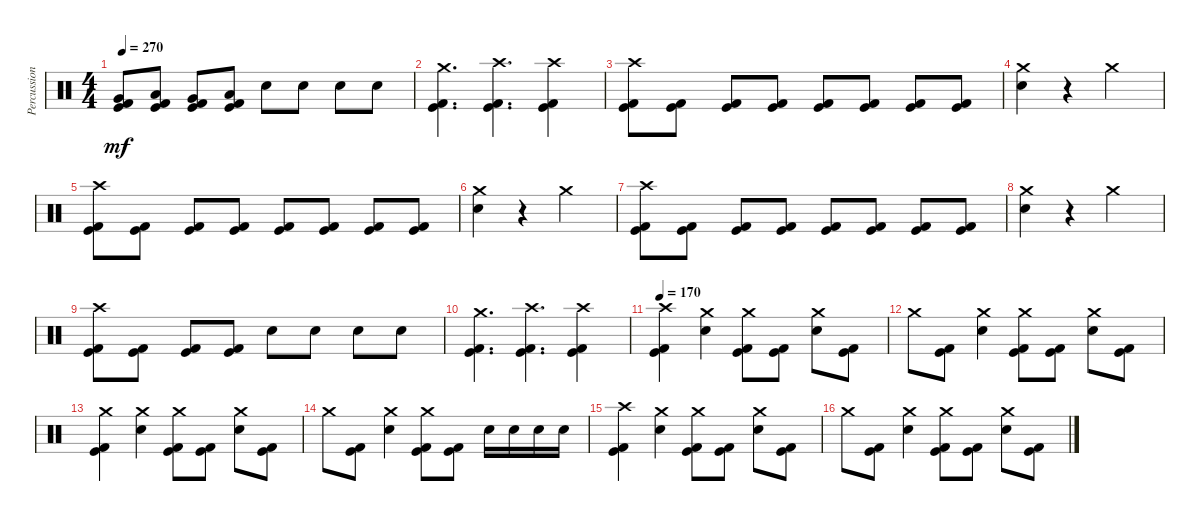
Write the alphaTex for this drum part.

\track ("Percussions" "Percussion") {instrument percussion}
\staff {score}
\articulation defaults
\ts (4 4)
\tempo 270
\clef neutral
\ks c
("Very Low Tom (hit)" "Kick (hit)" "Kick (hit) 2").8{dy mf} ("Low Floor Tom (hit)" "Kick (hit)" "Kick (hit) 2").8 ("Very Low Tom (hit)" "Kick (hit)" "Kick (hit) 2").8 ("Low Floor Tom (hit)" "Kick (hit)" "Kick (hit) 2").8 "Electric Snare (hit)".8 "Electric Snare (hit)".8 "Electric Snare (hit)".8 "Electric Snare (hit)".8 |
("Crash medium (hit)" "Kick (hit)" "Kick (hit) 2").4{d} ("Crash high (hit)" "Kick (hit)" "Kick (hit) 2").4{d} ("Crash high (hit)" "Kick (hit)" "Kick (hit) 2").4 |
("Crash high (hit)" "Kick (hit)" "Kick (hit) 2").8 ("Kick (hit)" "Kick (hit) 2").8 ("Kick (hit)" "Kick (hit) 2").8 ("Kick (hit)" "Kick (hit) 2").8 ("Kick (hit)" "Kick (hit) 2").8 ("Kick (hit)" "Kick (hit) 2").8 ("Kick (hit)" "Kick (hit) 2").8 ("Kick (hit)" "Kick (hit) 2").8 |
("Crash medium (hit)" "Electric Snare (hit)").4 r.4 "Crash medium (hit)".2 |
("Crash high (hit)" "Kick (hit)" "Kick (hit) 2").8 ("Kick (hit)" "Kick (hit) 2").8 ("Kick (hit)" "Kick (hit) 2").8 ("Kick (hit)" "Kick (hit) 2").8 ("Kick (hit)" "Kick (hit) 2").8 ("Kick (hit)" "Kick (hit) 2").8 ("Kick (hit)" "Kick (hit) 2").8 ("Kick (hit)" "Kick (hit) 2").8 |
("Crash medium (hit)" "Electric Snare (hit)").4 r.4 "Crash medium (hit)".2 |
("Crash high (hit)" "Kick (hit)" "Kick (hit) 2").8 ("Kick (hit)" "Kick (hit) 2").8 ("Kick (hit)" "Kick (hit) 2").8 ("Kick (hit)" "Kick (hit) 2").8 ("Kick (hit)" "Kick (hit) 2").8 ("Kick (hit)" "Kick (hit) 2").8 ("Kick (hit)" "Kick (hit) 2").8 ("Kick (hit)" "Kick (hit) 2").8 |
("Crash medium (hit)" "Electric Snare (hit)").4 r.4 "Crash medium (hit)".2 |
("Crash high (hit)" "Kick (hit)" "Kick (hit) 2").8 ("Kick (hit)" "Kick (hit) 2").8 ("Kick (hit)" "Kick (hit) 2").8 ("Kick (hit)" "Kick (hit) 2").8 "Electric Snare (hit)".8 "Electric Snare (hit)".8 "Electric Snare (hit)".8 "Electric Snare (hit)".8 |
("Crash medium (hit)" "Kick (hit)" "Kick (hit) 2").4{d} ("Crash high (hit)" "Kick (hit)" "Kick (hit) 2").4{d} ("Crash high (hit)" "Kick (hit)" "Kick (hit) 2").4 |
\tempo 170
("Crash high (hit)" "Kick (hit)" "Kick (hit) 2").4 ("Crash medium (hit)" "Electric Snare (hit)").4 ("Crash medium (hit)" "Kick (hit)" "Kick (hit) 2").8 ("Kick (hit)" "Kick (hit) 2").8 ("Crash medium (hit)" "Electric Snare (hit)").8 ("Kick (hit)" "Kick (hit) 2").8 |
"Crash medium (hit)".8 ("Kick (hit)" "Kick (hit) 2").8 ("Crash medium (hit)" "Electric Snare (hit)").4 ("Crash medium (hit)" "Kick (hit)" "Kick (hit) 2").8 ("Kick (hit)" "Kick (hit) 2").8 ("Crash medium (hit)" "Electric Snare (hit)").8 ("Kick (hit)" "Kick (hit) 2").8 |
("Crash medium (hit)" "Kick (hit)" "Kick (hit) 2").4 ("Crash medium (hit)" "Electric Snare (hit)").4 ("Crash medium (hit)" "Kick (hit)" "Kick (hit) 2").8 ("Kick (hit)" "Kick (hit) 2").8 ("Crash medium (hit)" "Electric Snare (hit)").8 ("Kick (hit)" "Kick (hit) 2").8 |
"Crash medium (hit)".8 ("Kick (hit)" "Kick (hit) 2").8 ("Crash medium (hit)" "Electric Snare (hit)").4 ("Crash medium (hit)" "Kick (hit)" "Kick (hit) 2").8 ("Kick (hit)" "Kick (hit) 2").8 "Electric Snare (hit)".16 "Electric Snare (hit)".16 "Electric Snare (hit)".16 "Electric Snare (hit)".16 |
("Crash high (hit)" "Kick (hit)" "Kick (hit) 2").4 ("Crash medium (hit)" "Electric Snare (hit)").4 ("Crash medium (hit)" "Kick (hit)" "Kick (hit) 2").8 ("Kick (hit)" "Kick (hit) 2").8 ("Crash medium (hit)" "Electric Snare (hit)").8 ("Kick (hit)" "Kick (hit) 2").8 |
"Crash medium (hit)".8 ("Kick (hit)" "Kick (hit) 2").8 ("Crash medium (hit)" "Electric Snare (hit)").4 ("Crash medium (hit)" "Kick (hit)" "Kick (hit) 2").8 ("Kick (hit)" "Kick (hit) 2").8 ("Crash medium (hit)" "Electric Snare (hit)").8 ("Kick (hit)" "Kick (hit) 2").8
